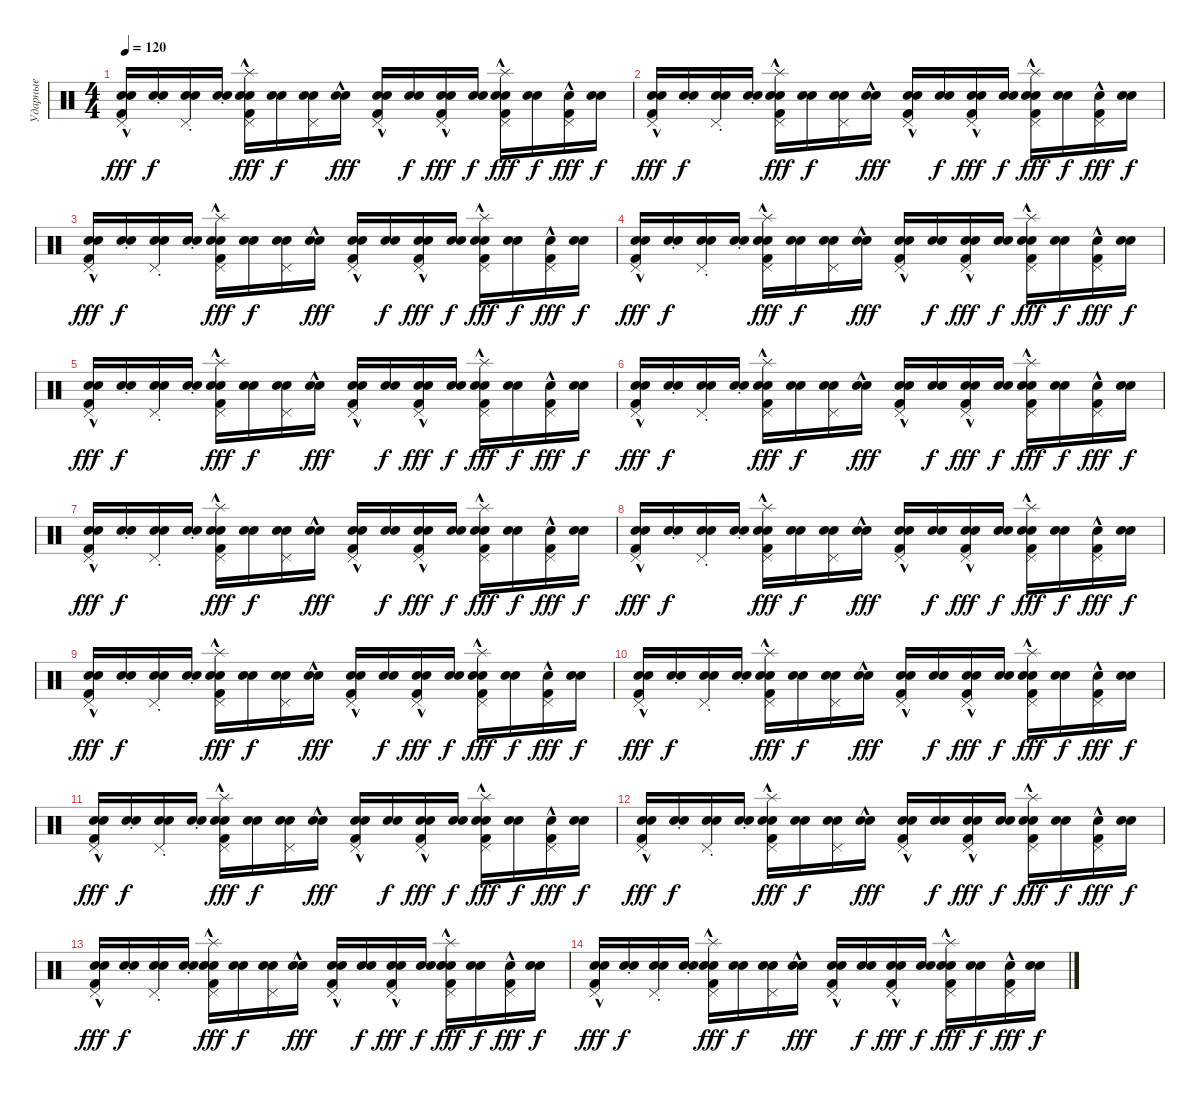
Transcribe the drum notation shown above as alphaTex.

\track ("Ударные" "Ударные") {instrument percussion}
\staff {score}
\articulation defaults
\ts (4 4)
\tempo 120
\clef neutral
\ks c
("Electric Snare (hit)" "Pedal Hi-Hat (hit)"{hac} "Snare (hit) 2"{hac} "Kick (hit) 2"{hac}).16{dy fff} ("Electric Snare (hit)"{st} "Snare (hit)").16{dy f} ("Electric Snare (hit)"{st} "Pedal Hi-Hat (hit)" "Snare (hit)").16 ("Electric Snare (hit)"{st} "Snare (hit)").16 ("Electric Snare (hit)" "Splash (hit)" "Pedal Hi-Hat (hit)" "Snare (hit) 2"{hac} "Kick (hit) 2"{hac}).16{dy fff} ("Electric Snare (hit)" "Snare (hit)").16{dy f} ("Electric Snare (hit)" "Pedal Hi-Hat (hit)" "Snare (hit)").16 ("Electric Snare (hit)" "Snare (hit)"{hac}).16{dy fff} ("Electric Snare (hit)" "Pedal Hi-Hat (hit)" "Snare (hit) 2"{hac} "Kick (hit) 2"{hac}).16 ("Electric Snare (hit)" "Snare (hit)").16{dy f} ("Electric Snare (hit)" "Electric Snare (hit)" "Pedal Hi-Hat (hit)" "Kick (hit) 2"{hac}).16{dy fff} ("Electric Snare (hit)" "Snare (hit)").16{dy f} ("Electric Snare (hit)" "Splash (hit)"{hac} "Pedal Hi-Hat (hit)" "Snare (hit) 2"{hac} "Kick (hit) 2"{hac}).16{dy fff} ("Electric Snare (hit)" "Snare (hit)").16{dy f} ("Electric Snare (hit)" "Pedal Hi-Hat (hit)"{hac} "Kick (hit) 2"{hac}).16{dy fff} ("Electric Snare (hit)" "Snare (hit)").16{dy f} |
("Electric Snare (hit)" "Pedal Hi-Hat (hit)"{hac} "Snare (hit) 2"{hac} "Kick (hit) 2"{hac}).16{dy fff} ("Electric Snare (hit)"{st} "Snare (hit)").16{dy f} ("Electric Snare (hit)"{st} "Pedal Hi-Hat (hit)" "Snare (hit)").16 ("Electric Snare (hit)"{st} "Snare (hit)").16 ("Electric Snare (hit)" "Splash (hit)" "Pedal Hi-Hat (hit)" "Snare (hit) 2"{hac} "Kick (hit) 2"{hac}).16{dy fff} ("Electric Snare (hit)" "Snare (hit)").16{dy f} ("Electric Snare (hit)" "Pedal Hi-Hat (hit)" "Snare (hit)").16 ("Electric Snare (hit)" "Snare (hit)"{hac}).16{dy fff} ("Electric Snare (hit)" "Pedal Hi-Hat (hit)"{hac} "Snare (hit) 2"{hac} "Kick (hit) 2"{hac}).16 ("Electric Snare (hit)" "Snare (hit)").16{dy f} ("Electric Snare (hit)" "Electric Snare (hit)"{hac} "Pedal Hi-Hat (hit)"{hac} "Kick (hit) 2"{hac}).16{dy fff} ("Electric Snare (hit)" "Snare (hit)").16{dy f} ("Electric Snare (hit)" "Splash (hit)" "Pedal Hi-Hat (hit)"{hac} "Snare (hit) 2"{hac} "Kick (hit) 2"{hac}).16{dy fff} ("Electric Snare (hit)" "Snare (hit)").16{dy f} ("Electric Snare (hit)" "Pedal Hi-Hat (hit)"{hac} "Kick (hit) 2"{hac}).16{dy fff} ("Electric Snare (hit)" "Snare (hit)").16{dy f} |
("Electric Snare (hit)" "Pedal Hi-Hat (hit)"{hac} "Snare (hit) 2"{hac} "Kick (hit) 2"{hac}).16{dy fff} ("Electric Snare (hit)"{st} "Snare (hit)").16{dy f} ("Electric Snare (hit)"{st} "Pedal Hi-Hat (hit)" "Snare (hit)").16 ("Electric Snare (hit)"{st} "Snare (hit)").16 ("Electric Snare (hit)" "Splash (hit)" "Pedal Hi-Hat (hit)" "Snare (hit) 2"{hac} "Kick (hit) 2"{hac}).16{dy fff} ("Electric Snare (hit)" "Snare (hit)").16{dy f} ("Electric Snare (hit)" "Pedal Hi-Hat (hit)" "Snare (hit)").16 ("Electric Snare (hit)" "Snare (hit)"{hac}).16{dy fff} ("Electric Snare (hit)" "Pedal Hi-Hat (hit)" "Snare (hit) 2"{hac} "Kick (hit) 2"{hac}).16 ("Electric Snare (hit)" "Snare (hit)").16{dy f} ("Electric Snare (hit)" "Electric Snare (hit)" "Pedal Hi-Hat (hit)" "Kick (hit) 2"{hac}).16{dy fff} ("Electric Snare (hit)" "Snare (hit)").16{dy f} ("Electric Snare (hit)" "Splash (hit)"{hac} "Pedal Hi-Hat (hit)" "Snare (hit) 2"{hac} "Kick (hit) 2"{hac}).16{dy fff} ("Electric Snare (hit)" "Snare (hit)").16{dy f} ("Electric Snare (hit)" "Pedal Hi-Hat (hit)"{hac} "Kick (hit) 2"{hac}).16{dy fff} ("Electric Snare (hit)" "Snare (hit)").16{dy f} |
("Electric Snare (hit)" "Pedal Hi-Hat (hit)"{hac} "Snare (hit) 2"{hac} "Kick (hit) 2"{hac}).16{dy fff} ("Electric Snare (hit)"{st} "Snare (hit)").16{dy f} ("Electric Snare (hit)"{st} "Pedal Hi-Hat (hit)" "Snare (hit)").16 ("Electric Snare (hit)"{st} "Snare (hit)").16 ("Electric Snare (hit)" "Splash (hit)" "Pedal Hi-Hat (hit)" "Snare (hit) 2"{hac} "Kick (hit) 2"{hac}).16{dy fff} ("Electric Snare (hit)" "Snare (hit)").16{dy f} ("Electric Snare (hit)" "Pedal Hi-Hat (hit)" "Snare (hit)").16 ("Electric Snare (hit)" "Snare (hit)"{hac}).16{dy fff} ("Electric Snare (hit)" "Pedal Hi-Hat (hit)"{hac} "Snare (hit) 2"{hac} "Kick (hit) 2"{hac}).16 ("Electric Snare (hit)" "Snare (hit)").16{dy f} ("Electric Snare (hit)" "Electric Snare (hit)"{hac} "Pedal Hi-Hat (hit)"{hac} "Kick (hit) 2"{hac}).16{dy fff} ("Electric Snare (hit)" "Snare (hit)").16{dy f} ("Electric Snare (hit)" "Splash (hit)" "Pedal Hi-Hat (hit)"{hac} "Snare (hit) 2"{hac} "Kick (hit) 2"{hac}).16{dy fff} ("Electric Snare (hit)" "Snare (hit)").16{dy f} ("Electric Snare (hit)" "Pedal Hi-Hat (hit)"{hac} "Kick (hit) 2"{hac}).16{dy fff} ("Electric Snare (hit)" "Snare (hit)").16{dy f} |
("Electric Snare (hit)" "Pedal Hi-Hat (hit)"{hac} "Snare (hit) 2"{hac} "Kick (hit) 2"{hac}).16{dy fff} ("Electric Snare (hit)"{st} "Snare (hit)").16{dy f} ("Electric Snare (hit)"{st} "Pedal Hi-Hat (hit)" "Snare (hit)").16 ("Electric Snare (hit)"{st} "Snare (hit)").16 ("Electric Snare (hit)" "Splash (hit)" "Pedal Hi-Hat (hit)" "Snare (hit) 2"{hac} "Kick (hit) 2"{hac}).16{dy fff} ("Electric Snare (hit)" "Snare (hit)").16{dy f} ("Electric Snare (hit)" "Pedal Hi-Hat (hit)" "Snare (hit)").16 ("Electric Snare (hit)" "Snare (hit)"{hac}).16{dy fff} ("Electric Snare (hit)" "Pedal Hi-Hat (hit)" "Snare (hit) 2"{hac} "Kick (hit) 2"{hac}).16 ("Electric Snare (hit)" "Snare (hit)").16{dy f} ("Electric Snare (hit)" "Electric Snare (hit)" "Pedal Hi-Hat (hit)" "Kick (hit) 2"{hac}).16{dy fff} ("Electric Snare (hit)" "Snare (hit)").16{dy f} ("Electric Snare (hit)" "Splash (hit)"{hac} "Pedal Hi-Hat (hit)" "Snare (hit) 2"{hac} "Kick (hit) 2"{hac}).16{dy fff} ("Electric Snare (hit)" "Snare (hit)").16{dy f} ("Electric Snare (hit)" "Pedal Hi-Hat (hit)"{hac} "Kick (hit) 2"{hac}).16{dy fff} ("Electric Snare (hit)" "Snare (hit)").16{dy f} |
("Electric Snare (hit)" "Pedal Hi-Hat (hit)"{hac} "Snare (hit) 2"{hac} "Kick (hit) 2"{hac}).16{dy fff} ("Electric Snare (hit)"{st} "Snare (hit)").16{dy f} ("Electric Snare (hit)"{st} "Pedal Hi-Hat (hit)" "Snare (hit)").16 ("Electric Snare (hit)"{st} "Snare (hit)").16 ("Electric Snare (hit)" "Splash (hit)" "Pedal Hi-Hat (hit)" "Snare (hit) 2"{hac} "Kick (hit) 2"{hac}).16{dy fff} ("Electric Snare (hit)" "Snare (hit)").16{dy f} ("Electric Snare (hit)" "Pedal Hi-Hat (hit)" "Snare (hit)").16 ("Electric Snare (hit)" "Snare (hit)"{hac}).16{dy fff} ("Electric Snare (hit)" "Pedal Hi-Hat (hit)"{hac} "Snare (hit) 2"{hac} "Kick (hit) 2"{hac}).16 ("Electric Snare (hit)" "Snare (hit)").16{dy f} ("Electric Snare (hit)" "Electric Snare (hit)"{hac} "Pedal Hi-Hat (hit)"{hac} "Kick (hit) 2"{hac}).16{dy fff} ("Electric Snare (hit)" "Snare (hit)").16{dy f} ("Electric Snare (hit)" "Splash (hit)" "Pedal Hi-Hat (hit)"{hac} "Snare (hit) 2"{hac} "Kick (hit) 2"{hac}).16{dy fff} ("Electric Snare (hit)" "Snare (hit)").16{dy f} ("Electric Snare (hit)" "Pedal Hi-Hat (hit)"{hac} "Kick (hit) 2"{hac}).16{dy fff} ("Electric Snare (hit)" "Snare (hit)").16{dy f} |
("Electric Snare (hit)" "Pedal Hi-Hat (hit)"{hac} "Snare (hit) 2"{hac} "Kick (hit) 2"{hac}).16{dy fff} ("Electric Snare (hit)"{st} "Snare (hit)").16{dy f} ("Electric Snare (hit)"{st} "Pedal Hi-Hat (hit)" "Snare (hit)").16 ("Electric Snare (hit)"{st} "Snare (hit)").16 ("Electric Snare (hit)" "Splash (hit)" "Pedal Hi-Hat (hit)" "Snare (hit) 2"{hac} "Kick (hit) 2"{hac}).16{dy fff} ("Electric Snare (hit)" "Snare (hit)").16{dy f} ("Electric Snare (hit)" "Pedal Hi-Hat (hit)" "Snare (hit)").16 ("Electric Snare (hit)" "Snare (hit)"{hac}).16{dy fff} ("Electric Snare (hit)" "Pedal Hi-Hat (hit)" "Snare (hit) 2"{hac} "Kick (hit) 2"{hac}).16 ("Electric Snare (hit)" "Snare (hit)").16{dy f} ("Electric Snare (hit)" "Electric Snare (hit)" "Pedal Hi-Hat (hit)" "Kick (hit) 2"{hac}).16{dy fff} ("Electric Snare (hit)" "Snare (hit)").16{dy f} ("Electric Snare (hit)" "Splash (hit)"{hac} "Pedal Hi-Hat (hit)" "Snare (hit) 2"{hac} "Kick (hit) 2"{hac}).16{dy fff} ("Electric Snare (hit)" "Snare (hit)").16{dy f} ("Electric Snare (hit)" "Pedal Hi-Hat (hit)"{hac} "Kick (hit) 2"{hac}).16{dy fff} ("Electric Snare (hit)" "Snare (hit)").16{dy f} |
("Electric Snare (hit)" "Pedal Hi-Hat (hit)"{hac} "Snare (hit) 2"{hac} "Kick (hit) 2"{hac}).16{dy fff} ("Electric Snare (hit)"{st} "Snare (hit)").16{dy f} ("Electric Snare (hit)"{st} "Pedal Hi-Hat (hit)" "Snare (hit)").16 ("Electric Snare (hit)"{st} "Snare (hit)").16 ("Electric Snare (hit)" "Splash (hit)" "Pedal Hi-Hat (hit)" "Snare (hit) 2"{hac} "Kick (hit) 2"{hac}).16{dy fff} ("Electric Snare (hit)" "Snare (hit)").16{dy f} ("Electric Snare (hit)" "Pedal Hi-Hat (hit)" "Snare (hit)").16 ("Electric Snare (hit)" "Snare (hit)"{hac}).16{dy fff} ("Electric Snare (hit)" "Pedal Hi-Hat (hit)"{hac} "Snare (hit) 2"{hac} "Kick (hit) 2"{hac}).16 ("Electric Snare (hit)" "Snare (hit)").16{dy f} ("Electric Snare (hit)" "Electric Snare (hit)"{hac} "Pedal Hi-Hat (hit)"{hac} "Kick (hit) 2"{hac}).16{dy fff} ("Electric Snare (hit)" "Snare (hit)").16{dy f} ("Electric Snare (hit)" "Splash (hit)" "Pedal Hi-Hat (hit)"{hac} "Snare (hit) 2"{hac} "Kick (hit) 2"{hac}).16{dy fff} ("Electric Snare (hit)" "Snare (hit)").16{dy f} ("Electric Snare (hit)" "Pedal Hi-Hat (hit)"{hac} "Kick (hit) 2"{hac}).16{dy fff} ("Electric Snare (hit)" "Snare (hit)").16{dy f} |
("Electric Snare (hit)" "Pedal Hi-Hat (hit)"{hac} "Snare (hit) 2"{hac} "Kick (hit) 2"{hac}).16{dy fff} ("Electric Snare (hit)"{st} "Snare (hit)").16{dy f} ("Electric Snare (hit)"{st} "Pedal Hi-Hat (hit)" "Snare (hit)").16 ("Electric Snare (hit)"{st} "Snare (hit)").16 ("Electric Snare (hit)" "Splash (hit)" "Pedal Hi-Hat (hit)" "Snare (hit) 2"{hac} "Kick (hit) 2"{hac}).16{dy fff} ("Electric Snare (hit)" "Snare (hit)").16{dy f} ("Electric Snare (hit)" "Pedal Hi-Hat (hit)" "Snare (hit)").16 ("Electric Snare (hit)" "Snare (hit)"{hac}).16{dy fff} ("Electric Snare (hit)" "Pedal Hi-Hat (hit)" "Snare (hit) 2"{hac} "Kick (hit) 2"{hac}).16 ("Electric Snare (hit)" "Snare (hit)").16{dy f} ("Electric Snare (hit)" "Electric Snare (hit)" "Pedal Hi-Hat (hit)" "Kick (hit) 2"{hac}).16{dy fff} ("Electric Snare (hit)" "Snare (hit)").16{dy f} ("Electric Snare (hit)" "Splash (hit)"{hac} "Pedal Hi-Hat (hit)" "Snare (hit) 2"{hac} "Kick (hit) 2"{hac}).16{dy fff} ("Electric Snare (hit)" "Snare (hit)").16{dy f} ("Electric Snare (hit)" "Pedal Hi-Hat (hit)"{hac} "Kick (hit) 2"{hac}).16{dy fff} ("Electric Snare (hit)" "Snare (hit)").16{dy f} |
("Electric Snare (hit)" "Pedal Hi-Hat (hit)"{hac} "Snare (hit) 2"{hac} "Kick (hit) 2"{hac}).16{dy fff} ("Electric Snare (hit)"{st} "Snare (hit)").16{dy f} ("Electric Snare (hit)"{st} "Pedal Hi-Hat (hit)" "Snare (hit)").16 ("Electric Snare (hit)"{st} "Snare (hit)").16 ("Electric Snare (hit)" "Splash (hit)" "Pedal Hi-Hat (hit)" "Snare (hit) 2"{hac} "Kick (hit) 2"{hac}).16{dy fff} ("Electric Snare (hit)" "Snare (hit)").16{dy f} ("Electric Snare (hit)" "Pedal Hi-Hat (hit)" "Snare (hit)").16 ("Electric Snare (hit)" "Snare (hit)"{hac}).16{dy fff} ("Electric Snare (hit)" "Pedal Hi-Hat (hit)"{hac} "Snare (hit) 2"{hac} "Kick (hit) 2"{hac}).16 ("Electric Snare (hit)" "Snare (hit)").16{dy f} ("Electric Snare (hit)" "Electric Snare (hit)"{hac} "Pedal Hi-Hat (hit)"{hac} "Kick (hit) 2"{hac}).16{dy fff} ("Electric Snare (hit)" "Snare (hit)").16{dy f} ("Electric Snare (hit)" "Splash (hit)" "Pedal Hi-Hat (hit)"{hac} "Snare (hit) 2"{hac} "Kick (hit) 2"{hac}).16{dy fff} ("Electric Snare (hit)" "Snare (hit)").16{dy f} ("Electric Snare (hit)" "Pedal Hi-Hat (hit)"{hac} "Kick (hit) 2"{hac}).16{dy fff} ("Electric Snare (hit)" "Snare (hit)").16{dy f} |
("Electric Snare (hit)" "Pedal Hi-Hat (hit)"{hac} "Snare (hit) 2"{hac} "Kick (hit) 2"{hac}).16{dy fff} ("Electric Snare (hit)"{st} "Snare (hit)").16{dy f} ("Electric Snare (hit)"{st} "Pedal Hi-Hat (hit)" "Snare (hit)").16 ("Electric Snare (hit)"{st} "Snare (hit)").16 ("Electric Snare (hit)" "Splash (hit)" "Pedal Hi-Hat (hit)" "Snare (hit) 2"{hac} "Kick (hit) 2"{hac}).16{dy fff} ("Electric Snare (hit)" "Snare (hit)").16{dy f} ("Electric Snare (hit)" "Pedal Hi-Hat (hit)" "Snare (hit)").16 ("Electric Snare (hit)" "Snare (hit)"{hac}).16{dy fff} ("Electric Snare (hit)" "Pedal Hi-Hat (hit)" "Snare (hit) 2"{hac} "Kick (hit) 2"{hac}).16 ("Electric Snare (hit)" "Snare (hit)").16{dy f} ("Electric Snare (hit)" "Electric Snare (hit)" "Pedal Hi-Hat (hit)" "Kick (hit) 2"{hac}).16{dy fff} ("Electric Snare (hit)" "Snare (hit)").16{dy f} ("Electric Snare (hit)" "Splash (hit)"{hac} "Pedal Hi-Hat (hit)" "Snare (hit) 2"{hac} "Kick (hit) 2"{hac}).16{dy fff} ("Electric Snare (hit)" "Snare (hit)").16{dy f} ("Electric Snare (hit)" "Pedal Hi-Hat (hit)"{hac} "Kick (hit) 2"{hac}).16{dy fff} ("Electric Snare (hit)" "Snare (hit)").16{dy f} |
("Electric Snare (hit)" "Pedal Hi-Hat (hit)"{hac} "Snare (hit) 2"{hac} "Kick (hit) 2"{hac}).16{dy fff} ("Electric Snare (hit)"{st} "Snare (hit)").16{dy f} ("Electric Snare (hit)"{st} "Pedal Hi-Hat (hit)" "Snare (hit)").16 ("Electric Snare (hit)"{st} "Snare (hit)").16 ("Electric Snare (hit)" "Splash (hit)" "Pedal Hi-Hat (hit)" "Snare (hit) 2"{hac} "Kick (hit) 2"{hac}).16{dy fff} ("Electric Snare (hit)" "Snare (hit)").16{dy f} ("Electric Snare (hit)" "Pedal Hi-Hat (hit)" "Snare (hit)").16 ("Electric Snare (hit)" "Snare (hit)"{hac}).16{dy fff} ("Electric Snare (hit)" "Pedal Hi-Hat (hit)"{hac} "Snare (hit) 2"{hac} "Kick (hit) 2"{hac}).16 ("Electric Snare (hit)" "Snare (hit)").16{dy f} ("Electric Snare (hit)" "Electric Snare (hit)"{hac} "Pedal Hi-Hat (hit)"{hac} "Kick (hit) 2"{hac}).16{dy fff} ("Electric Snare (hit)" "Snare (hit)").16{dy f} ("Electric Snare (hit)" "Splash (hit)" "Pedal Hi-Hat (hit)"{hac} "Snare (hit) 2"{hac} "Kick (hit) 2"{hac}).16{dy fff} ("Electric Snare (hit)" "Snare (hit)").16{dy f} ("Electric Snare (hit)" "Pedal Hi-Hat (hit)"{hac} "Kick (hit) 2"{hac}).16{dy fff} ("Electric Snare (hit)" "Snare (hit)").16{dy f} |
("Electric Snare (hit)" "Pedal Hi-Hat (hit)"{hac} "Snare (hit) 2"{hac} "Kick (hit) 2"{hac}).16{dy fff} ("Electric Snare (hit)"{st} "Snare (hit)").16{dy f} ("Electric Snare (hit)"{st} "Pedal Hi-Hat (hit)" "Snare (hit)").16 ("Electric Snare (hit)"{st} "Snare (hit)").16 ("Electric Snare (hit)" "Splash (hit)" "Pedal Hi-Hat (hit)" "Snare (hit) 2"{hac} "Kick (hit) 2"{hac}).16{dy fff} ("Electric Snare (hit)" "Snare (hit)").16{dy f} ("Electric Snare (hit)" "Pedal Hi-Hat (hit)" "Snare (hit)").16 ("Electric Snare (hit)" "Snare (hit)"{hac}).16{dy fff} ("Electric Snare (hit)" "Pedal Hi-Hat (hit)" "Snare (hit) 2"{hac} "Kick (hit) 2"{hac}).16 ("Electric Snare (hit)" "Snare (hit)").16{dy f} ("Electric Snare (hit)" "Electric Snare (hit)" "Pedal Hi-Hat (hit)" "Kick (hit) 2"{hac}).16{dy fff} ("Electric Snare (hit)" "Snare (hit)").16{dy f} ("Electric Snare (hit)" "Splash (hit)"{hac} "Pedal Hi-Hat (hit)" "Snare (hit) 2"{hac} "Kick (hit) 2"{hac}).16{dy fff} ("Electric Snare (hit)" "Snare (hit)").16{dy f} ("Electric Snare (hit)" "Pedal Hi-Hat (hit)"{hac} "Kick (hit) 2"{hac}).16{dy fff} ("Electric Snare (hit)" "Snare (hit)").16{dy f} |
("Electric Snare (hit)" "Pedal Hi-Hat (hit)"{hac} "Snare (hit) 2"{hac} "Kick (hit) 2"{hac}).16{dy fff} ("Electric Snare (hit)"{st} "Snare (hit)").16{dy f} ("Electric Snare (hit)"{st} "Pedal Hi-Hat (hit)" "Snare (hit)").16 ("Electric Snare (hit)"{st} "Snare (hit)").16 ("Electric Snare (hit)" "Splash (hit)" "Pedal Hi-Hat (hit)" "Snare (hit) 2"{hac} "Kick (hit) 2"{hac}).16{dy fff} ("Electric Snare (hit)" "Snare (hit)").16{dy f} ("Electric Snare (hit)" "Pedal Hi-Hat (hit)" "Snare (hit)").16 ("Electric Snare (hit)" "Snare (hit)"{hac}).16{dy fff} ("Electric Snare (hit)" "Pedal Hi-Hat (hit)"{hac} "Snare (hit) 2"{hac} "Kick (hit) 2"{hac}).16 ("Electric Snare (hit)" "Snare (hit)").16{dy f} ("Electric Snare (hit)" "Electric Snare (hit)"{hac} "Pedal Hi-Hat (hit)"{hac} "Kick (hit) 2"{hac}).16{dy fff} ("Electric Snare (hit)" "Snare (hit)").16{dy f} ("Electric Snare (hit)" "Splash (hit)" "Pedal Hi-Hat (hit)"{hac} "Snare (hit) 2"{hac} "Kick (hit) 2"{hac}).16{dy fff} ("Electric Snare (hit)" "Snare (hit)").16{dy f} ("Electric Snare (hit)" "Pedal Hi-Hat (hit)"{hac} "Kick (hit) 2"{hac}).16{dy fff} ("Electric Snare (hit)" "Snare (hit)").16{dy f}
